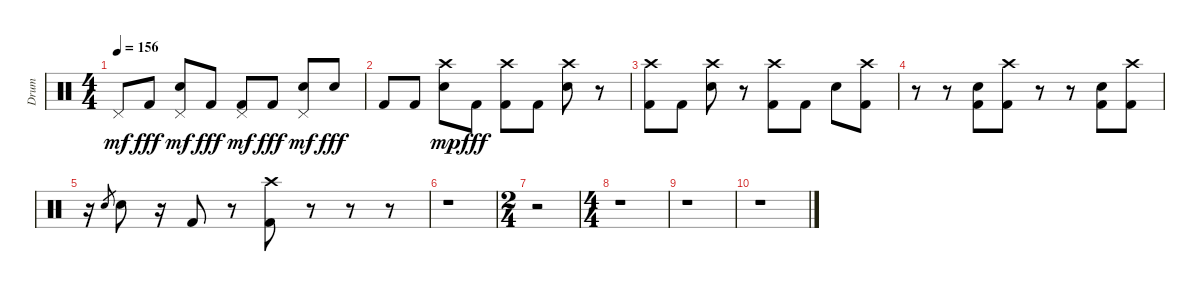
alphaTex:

\track ("Drum" "Drum") {instrument percussion}
\staff {score}
\articulation defaults
\ts (4 4)
\tempo 156
\clef neutral
\ks c "Pedal Hi-Hat (hit)".8{dy mf} "Kick (hit) 2".8{dy fff}
("Electric Snare (hit)" "Pedal Hi-Hat (hit)").8{dy mf} "Kick (hit) 2".8{dy fff} ("Kick (hit) 2" "Pedal Hi-Hat (hit)").8{dy mf} "Kick (hit) 2".8{dy fff} ("Electric Snare (hit)" "Pedal Hi-Hat (hit)").8{dy mf} "Electric Snare (hit)"{tr (40 16)}.8{dy fff} |
"Kick (hit) 2".8 "Kick (hit) 2".8 ("Electric Snare (hit)" "Crash high (hit)").8{dy mp} "Kick (hit) 2".8{dy fff} ("Kick (hit) 2" "Crash high (hit)").8 "Kick (hit) 2".8 ("Electric Snare (hit)" "Crash high (hit)").8 r.8 |
("Kick (hit) 2" "Crash high (hit)").8 "Kick (hit) 2".8 ("Electric Snare (hit)" "Crash high (hit)").8 r.8 ("Kick (hit) 2" "Crash high (hit)").8 "Kick (hit) 2".8 "Electric Snare (hit)".8 ("Kick (hit) 2" "Crash high (hit)").8 |
r.8 r.8 ("Electric Snare (hit)" "Kick (hit) 2").8 ("Kick (hit) 2" "Crash high (hit)").8 r.8 r.8 ("Electric Snare (hit)" "Kick (hit) 2").8 ("Kick (hit) 2" "Crash high (hit)").8 |
r.16 "Electric Snare (hit)".8{gr} "Electric Snare (hit)".8 r.16 "Kick (hit) 2".8 r.8 ("Kick (hit) 2" "Crash high (hit)").8 r.8 r.8 r.8 |
r.1 |
\ts (2 4)
r.2 |
\ts (4 4)
r.1 |
r.1 |
r.1
